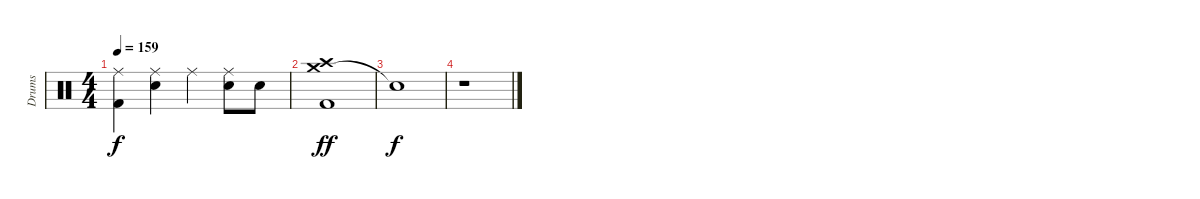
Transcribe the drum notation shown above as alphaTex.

\track ("Drums" "Drums") {instrument percussion}
\staff {score}
\articulation defaults
\ts (4 4)
\tempo 159
\clef neutral
\ks c
("Ride (middle)" "Kick (hit) 2").4{dy f} ("Ride (middle)" "Snare (hit) 2").4 "Ride (middle)".4 ("Ride (middle)" "Snare (hit) 2").8 "Snare (hit) 2".8 |
("Crash medium (hit)" "Crash high (hit)" "Kick (hit) 2").1{dy ff} |
"Snare (hit)"{t}.1{dy f} |
r.1
